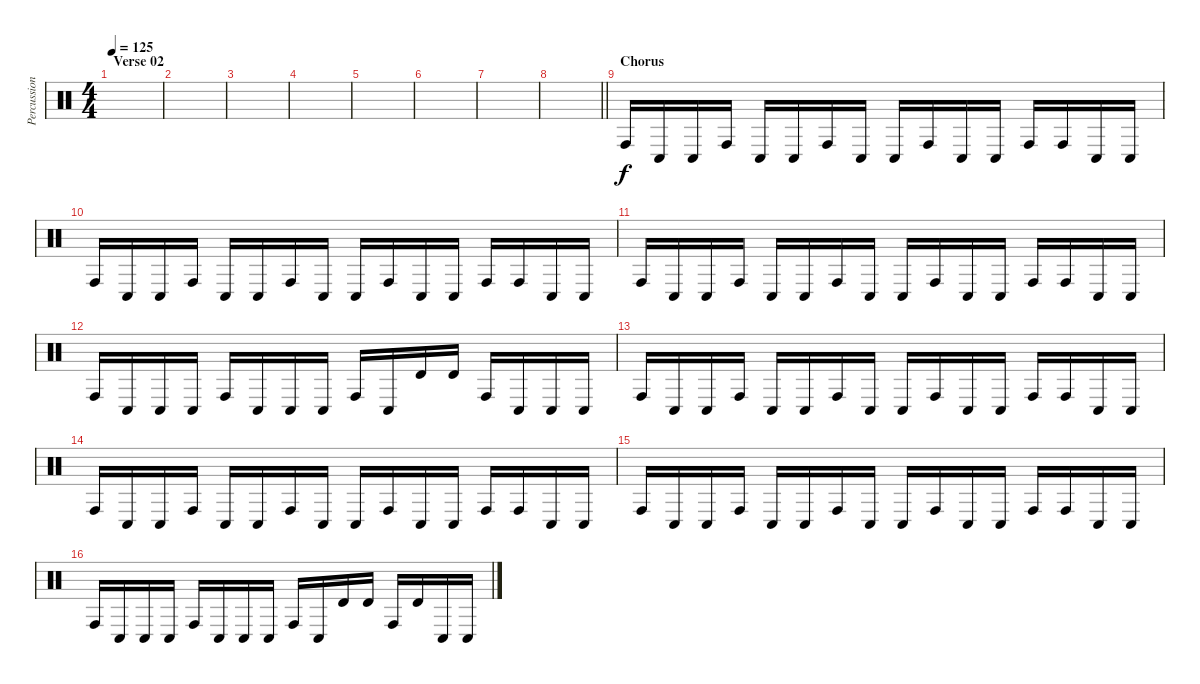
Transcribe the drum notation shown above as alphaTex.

\track ("Percussion" "Percussion") {instrument percussion}
\staff {score}
\articulation defaults
\ts (4 4)
\section ("" "Verse 02")
\tempo 125
\clef neutral
\ks c
|
|
|
|
|
|
|
\barLineRight lightlight
|
\section ("" "Chorus")
"Conga high (hit)".16 "Conga low (hit)".16 "Conga low (hit)".16 "Conga high (hit)".16 "Conga low (hit)".16 "Conga low (hit)".16 "Conga high (hit)".16 "Conga low (hit)".16 "Conga low (hit)".16 "Conga high (hit)".16 "Conga low (hit)".16 "Conga low (hit)".16 "Conga high (hit)".16 "Conga high (hit)".16 "Conga low (hit)".16 "Conga low (hit)".16 |
"Conga high (hit)".16 "Conga low (hit)".16 "Conga low (hit)".16 "Conga high (hit)".16 "Conga low (hit)".16 "Conga low (hit)".16 "Conga high (hit)".16 "Conga low (hit)".16 "Conga low (hit)".16 "Conga high (hit)".16 "Conga low (hit)".16 "Conga low (hit)".16 "Conga high (hit)".16 "Conga high (hit)".16 "Conga low (hit)".16 "Conga low (hit)".16 |
"Conga high (hit)".16 "Conga low (hit)".16 "Conga low (hit)".16 "Conga high (hit)".16 "Conga low (hit)".16 "Conga low (hit)".16 "Conga high (hit)".16 "Conga low (hit)".16 "Conga low (hit)".16 "Conga high (hit)".16 "Conga low (hit)".16 "Conga low (hit)".16 "Conga high (hit)".16 "Conga high (hit)".16 "Conga low (hit)".16 "Conga low (hit)".16 |
"Conga high (hit)".16 "Conga low (hit)".16 "Conga low (hit)".16 "Conga low (hit)".16 "Conga high (hit)".16 "Conga low (hit)".16 "Conga low (hit)".16 "Conga low (hit)".16 "Conga high (hit)".16 "Conga low (hit)".16 "Timbale high (hit)".16 "Timbale high (hit)".16 "Conga high (hit)".16 "Conga low (hit)".16 "Conga low (hit)".16 "Conga low (hit)".16 |
"Conga high (hit)".16 "Conga low (hit)".16 "Conga low (hit)".16 "Conga high (hit)".16 "Conga low (hit)".16 "Conga low (hit)".16 "Conga high (hit)".16 "Conga low (hit)".16 "Conga low (hit)".16 "Conga high (hit)".16 "Conga low (hit)".16 "Conga low (hit)".16 "Conga high (hit)".16 "Conga high (hit)".16 "Conga low (hit)".16 "Conga low (hit)".16 |
"Conga high (hit)".16 "Conga low (hit)".16 "Conga low (hit)".16 "Conga high (hit)".16 "Conga low (hit)".16 "Conga low (hit)".16 "Conga high (hit)".16 "Conga low (hit)".16 "Conga low (hit)".16 "Conga high (hit)".16 "Conga low (hit)".16 "Conga low (hit)".16 "Conga high (hit)".16 "Conga high (hit)".16 "Conga low (hit)".16 "Conga low (hit)".16 |
"Conga high (hit)".16 "Conga low (hit)".16 "Conga low (hit)".16 "Conga high (hit)".16 "Conga low (hit)".16 "Conga low (hit)".16 "Conga high (hit)".16 "Conga low (hit)".16 "Conga low (hit)".16 "Conga high (hit)".16 "Conga low (hit)".16 "Conga low (hit)".16 "Conga high (hit)".16 "Conga high (hit)".16 "Conga low (hit)".16 "Conga low (hit)".16 |
"Conga high (hit)".16 "Conga low (hit)".16 "Conga low (hit)".16 "Conga low (hit)".16 "Conga high (hit)".16 "Conga low (hit)".16 "Conga low (hit)".16 "Conga low (hit)".16 "Conga high (hit)".16 "Conga low (hit)".16 "Timbale high (hit)".16 "Timbale high (hit)".16 "Conga high (hit)".16 "Timbale high (hit)".16 "Conga low (hit)".16 "Conga low (hit)".16
